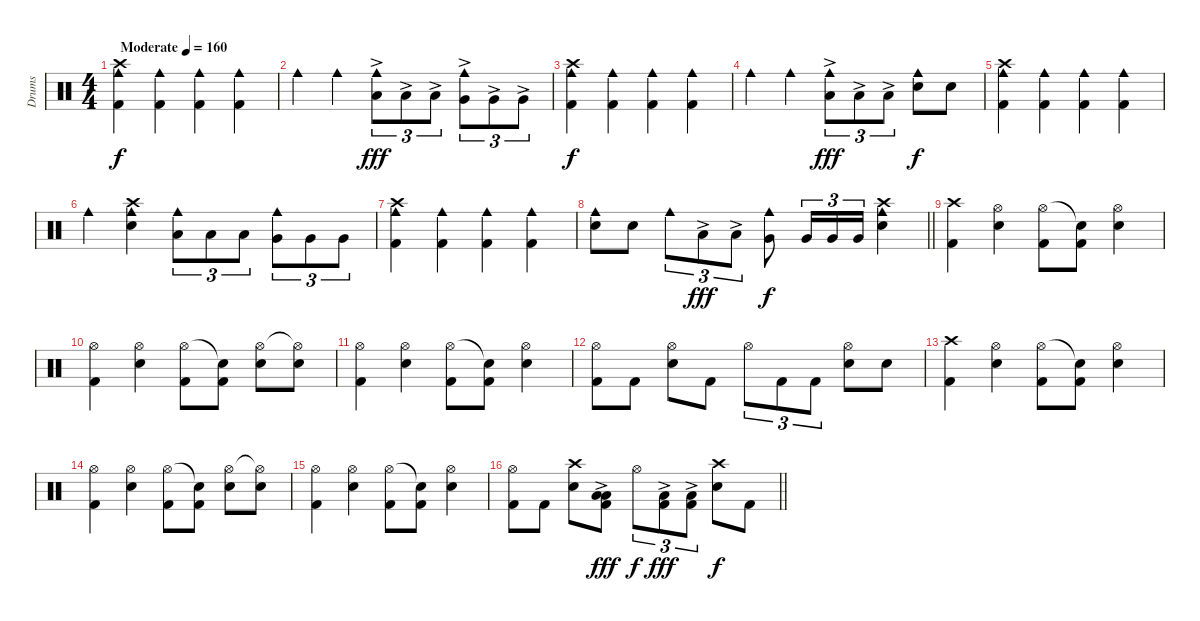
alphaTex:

\track ("Drums" "Drums") {instrument percussion}
\staff {score}
\articulation defaults
\ts (4 4)
\tempo (160 "Moderate")
\clef neutral
\ks c
("Crash high (hit)" "Cowbell medium (hit)" "Kick (hit) 2").4{dy f} ("Cowbell medium (hit)" "Kick (hit) 2").4 ("Cowbell medium (hit)" "Kick (hit) 2").4 ("Cowbell medium (hit)" "Kick (hit) 2").4 |
"Cowbell medium (hit)".4 "Cowbell medium (hit)".4 ("Cowbell medium (hit)" "Low Tom (hit)"{ac}).8{tu (3 2) dy fff} "Low Tom (hit)"{ac}.8{tu (3 2)} "Low Tom (hit)"{ac}.8{tu (3 2)} ("Cowbell medium (hit)" "Very Low Tom (hit)"{ac}).8{tu (3 2)} "Very Low Tom (hit)"{ac}.8{tu (3 2)} "Very Low Tom (hit)"{ac}.8{tu (3 2)} |
("Crash high (hit)" "Cowbell medium (hit)" "Kick (hit) 2").4{dy f} ("Cowbell medium (hit)" "Kick (hit) 2").4 ("Cowbell medium (hit)" "Kick (hit) 2").4 ("Cowbell medium (hit)" "Kick (hit) 2").4 |
"Cowbell medium (hit)".4 "Cowbell medium (hit)".4 ("Cowbell medium (hit)" "Low Tom (hit)"{ac}).8{tu (3 2) dy fff} "Low Tom (hit)"{ac}.8{tu (3 2)} "Low Tom (hit)"{ac}.8{tu (3 2)} ("Cowbell medium (hit)" "Snare (hit) 2").8{dy f} "Snare (hit) 2".8 |
("Crash high (hit)" "Cowbell medium (hit)" "Kick (hit) 2").4 ("Cowbell medium (hit)" "Kick (hit) 2").4 ("Cowbell medium (hit)" "Kick (hit) 2").4 ("Cowbell medium (hit)" "Kick (hit) 2").4 |
"Cowbell medium (hit)".4 ("Crash high (hit)" "Cowbell medium (hit)" "Snare (hit) 2").4 ("Cowbell medium (hit)" "Low Tom (hit)").8{tu (3 2)} "Low Tom (hit)".8{tu (3 2)} "Low Tom (hit)".8{tu (3 2)} ("Cowbell medium (hit)" "Very Low Tom (hit)").8{tu (3 2)} "Very Low Tom (hit)".8{tu (3 2)} "Very Low Tom (hit)".8{tu (3 2)} |
("Crash high (hit)" "Cowbell medium (hit)" "Kick (hit) 2").4 ("Cowbell medium (hit)" "Kick (hit) 2").4 ("Cowbell medium (hit)" "Kick (hit) 2").4 ("Cowbell medium (hit)" "Kick (hit) 2").4 |
\barLineRight lightlight
("Cowbell medium (hit)" "Snare (hit) 2").8 "Snare (hit) 2".8 "Cowbell medium (hit)".8{tu (3 2)} "Low Tom (hit)"{ac}.8{tu (3 2) dy fff} "Low Tom (hit)"{ac}.8{tu (3 2)} ("Cowbell medium (hit)" "Very Low Tom (hit)").8{dy f} "Very Low Tom (hit)".16{tu (3 2)} "Very Low Tom (hit)".16{tu (3 2)} "Very Low Tom (hit)".16{tu (3 2)} ("Crash high (hit)" "Cowbell medium (hit)" "Snare (hit) 2").4 |
("Crash high (hit)" "Kick (hit) 2").4 ("Hi-Hat (open)" "Snare (hit) 2").4 ("Hi-Hat (open)" "Kick (hit) 2").8 ("Snare (hit)"{t} "Kick (hit) 2").8 ("Hi-Hat (open)" "Snare (hit) 2").4 |
("Hi-Hat (open)" "Kick (hit) 2").4 ("Hi-Hat (open)" "Snare (hit) 2").4 ("Hi-Hat (open)" "Kick (hit) 2").8 ("Snare (hit)"{t} "Kick (hit) 2").8 ("Hi-Hat (open)" "Snare (hit) 2").8 ("Hi-Hat (open)"{t} "Snare (hit) 2").8 |
("Hi-Hat (open)" "Kick (hit) 2").4 ("Hi-Hat (open)" "Snare (hit) 2").4 ("Hi-Hat (open)" "Kick (hit) 2").8 ("Snare (hit)"{t} "Kick (hit) 2").8 ("Hi-Hat (open)" "Snare (hit) 2").4 |
("Hi-Hat (open)" "Kick (hit) 2").8 "Kick (hit) 2".8 ("Hi-Hat (open)" "Snare (hit) 2").8 "Kick (hit) 2".8 "Hi-Hat (open)".8{tu (3 2)} "Kick (hit) 2".8{tu (3 2)} "Kick (hit) 2".8{tu (3 2)} ("Hi-Hat (open)" "Snare (hit) 2").8 "Snare (hit) 2".8 |
("Crash high (hit)" "Kick (hit) 2").4 ("Hi-Hat (open)" "Snare (hit) 2").4 ("Hi-Hat (open)" "Kick (hit) 2").8 ("Snare (hit)"{t} "Kick (hit) 2").8 ("Hi-Hat (open)" "Snare (hit) 2").4 |
("Hi-Hat (open)" "Kick (hit) 2").4 ("Hi-Hat (open)" "Snare (hit) 2").4 ("Hi-Hat (open)" "Kick (hit) 2").8 ("Snare (hit)"{t} "Kick (hit) 2").8 ("Hi-Hat (open)" "Snare (hit) 2").8 ("Hi-Hat (open)"{t} "Snare (hit) 2").8 |
("Hi-Hat (open)" "Kick (hit) 2").4 ("Hi-Hat (open)" "Snare (hit) 2").4 ("Hi-Hat (open)" "Kick (hit) 2").8 ("Snare (hit)"{t} "Kick (hit) 2").8 ("Hi-Hat (open)" "Snare (hit) 2").4 |
\barLineRight lightlight
("Hi-Hat (open)" "Kick (hit) 2").8 "Kick (hit) 2".8 ("Crash high (hit)" "Snare (hit) 2").8 ("Low Tom (hit)"{ac} "Low Tom (hit)"{ac} "Kick (hit) 2").8{dy fff} "Hi-Hat (open)".8{tu (3 2) dy f} ("Low Floor Tom (hit)"{ac} "Kick (hit) 2").8{tu (3 2) dy fff} ("Low Floor Tom (hit)"{ac} "Kick (hit) 2").8{tu (3 2)} ("Crash high (hit)" "Snare (hit) 2").8{dy f} "Kick (hit) 2".8
